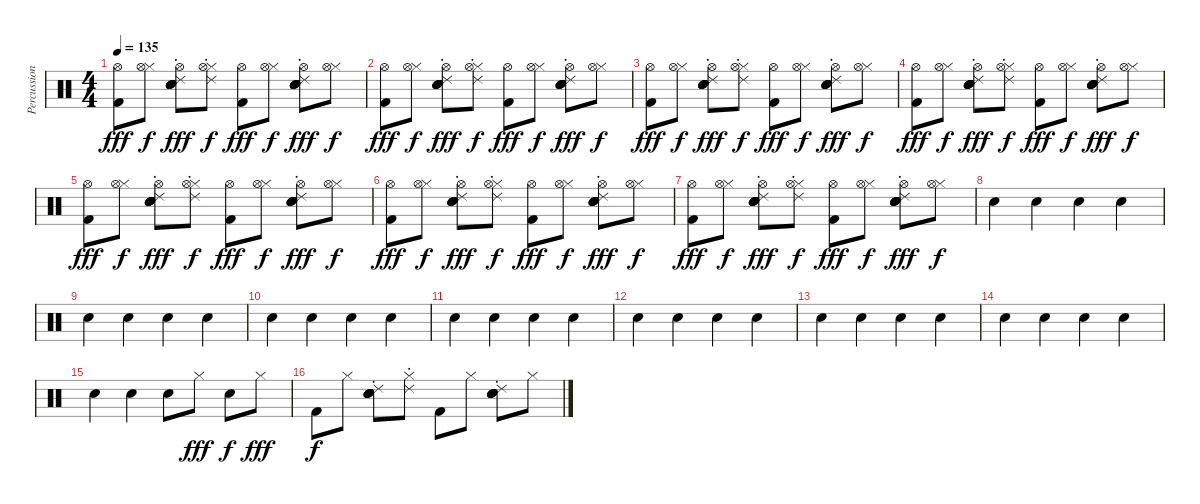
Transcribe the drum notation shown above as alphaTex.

\track ("Percussion" "Percussion") {instrument percussion}
\staff {score}
\articulation defaults
\ts (4 4)
\tempo 135
\clef neutral
\ks c
("Kick (hit) 2" "Hi-Hat (open)").8{dy fff} ("Hi-Hat (closed)" "Hi-Hat (open)").8{dy f} ("Snare (hit) 2" "Ride (choke) 2" "Hand Clap (hit)" "Hand Clap (hit)" "Hand Clap (hit)" "Hi-Hat (open)").8{dy fff} ("Hi-Hat (closed)" "Ride (choke) 2" "Hi-Hat (open)").8{dy f} ("Kick (hit) 2" "Hi-Hat (open)").8{dy fff} ("Hi-Hat (closed)" "Hi-Hat (open)").8{dy f} ("Snare (hit) 2" "Ride (choke) 2" "Hand Clap (hit)" "Hand Clap (hit)" "Hand Clap (hit)" "Hi-Hat (open)").8{dy fff} ("Hi-Hat (closed)" "Hi-Hat (open)").8{dy f} |
("Kick (hit) 2" "Hi-Hat (open)").8{dy fff} ("Hi-Hat (closed)" "Hi-Hat (open)").8{dy f} ("Snare (hit) 2" "Ride (choke) 2" "Hand Clap (hit)" "Hand Clap (hit)" "Hand Clap (hit)" "Hi-Hat (open)").8{dy fff} ("Hi-Hat (closed)" "Ride (choke) 2" "Hi-Hat (open)").8{dy f} ("Kick (hit) 2" "Hi-Hat (open)").8{dy fff} ("Hi-Hat (closed)" "Hi-Hat (open)").8{dy f} ("Snare (hit) 2" "Ride (choke) 2" "Hand Clap (hit)" "Hand Clap (hit)" "Hand Clap (hit)" "Hi-Hat (open)").8{dy fff} ("Hi-Hat (closed)" "Hi-Hat (open)").8{dy f} |
("Kick (hit) 2" "Hi-Hat (open)").8{dy fff} ("Hi-Hat (closed)" "Hi-Hat (open)").8{dy f} ("Snare (hit) 2" "Ride (choke) 2" "Hand Clap (hit)" "Hand Clap (hit)" "Hand Clap (hit)" "Hi-Hat (open)").8{dy fff} ("Hi-Hat (closed)" "Ride (choke) 2" "Hi-Hat (open)").8{dy f} ("Kick (hit) 2" "Hi-Hat (open)").8{dy fff} ("Hi-Hat (closed)" "Hi-Hat (open)").8{dy f} ("Snare (hit) 2" "Ride (choke) 2" "Hand Clap (hit)" "Hand Clap (hit)" "Hand Clap (hit)" "Hi-Hat (open)").8{dy fff} ("Hi-Hat (closed)" "Hi-Hat (open)").8{dy f} |
("Kick (hit) 2" "Hi-Hat (open)").8{dy fff} ("Hi-Hat (closed)" "Hi-Hat (open)").8{dy f} ("Snare (hit) 2" "Ride (choke) 2" "Hand Clap (hit)" "Hand Clap (hit)" "Hand Clap (hit)" "Hi-Hat (open)").8{dy fff} ("Hi-Hat (closed)" "Ride (choke) 2" "Hi-Hat (open)").8{dy f} ("Kick (hit) 2" "Hi-Hat (open)").8{dy fff} ("Hi-Hat (closed)" "Hi-Hat (open)").8{dy f} ("Snare (hit) 2" "Ride (choke) 2" "Hand Clap (hit)" "Hand Clap (hit)" "Hand Clap (hit)" "Hi-Hat (open)").8{dy fff} ("Hi-Hat (closed)" "Hi-Hat (open)").8{dy f} |
("Kick (hit) 2" "Hi-Hat (open)").8{dy fff} ("Hi-Hat (closed)" "Hi-Hat (open)").8{dy f} ("Snare (hit) 2" "Ride (choke) 2" "Hand Clap (hit)" "Hand Clap (hit)" "Hand Clap (hit)" "Hi-Hat (open)").8{dy fff} ("Hi-Hat (closed)" "Ride (choke) 2" "Hi-Hat (open)").8{dy f} ("Kick (hit) 2" "Hi-Hat (open)").8{dy fff} ("Hi-Hat (closed)" "Hi-Hat (open)").8{dy f} ("Snare (hit) 2" "Ride (choke) 2" "Hand Clap (hit)" "Hand Clap (hit)" "Hand Clap (hit)" "Hi-Hat (open)").8{dy fff} ("Hi-Hat (closed)" "Hi-Hat (open)").8{dy f} |
("Kick (hit) 2" "Hi-Hat (open)").8{dy fff} ("Hi-Hat (closed)" "Hi-Hat (open)").8{dy f} ("Snare (hit) 2" "Ride (choke) 2" "Hand Clap (hit)" "Hand Clap (hit)" "Hand Clap (hit)" "Hi-Hat (open)").8{dy fff} ("Hi-Hat (closed)" "Ride (choke) 2" "Hi-Hat (open)").8{dy f} ("Kick (hit) 2" "Hi-Hat (open)").8{dy fff} ("Hi-Hat (closed)" "Hi-Hat (open)").8{dy f} ("Snare (hit) 2" "Ride (choke) 2" "Hand Clap (hit)" "Hand Clap (hit)" "Hand Clap (hit)" "Hi-Hat (open)").8{dy fff} ("Hi-Hat (closed)" "Hi-Hat (open)").8{dy f} |
("Kick (hit) 2" "Hi-Hat (open)").8{dy fff} ("Hi-Hat (closed)" "Hi-Hat (open)").8{dy f} ("Snare (hit) 2" "Ride (choke) 2" "Hand Clap (hit)" "Hand Clap (hit)" "Hand Clap (hit)" "Hi-Hat (open)").8{dy fff} ("Hi-Hat (closed)" "Ride (choke) 2" "Hi-Hat (open)").8{dy f} ("Kick (hit) 2" "Hi-Hat (open)").8{dy fff} ("Hi-Hat (closed)" "Hi-Hat (open)").8{dy f} ("Snare (hit) 2" "Ride (choke) 2" "Hand Clap (hit)" "Hand Clap (hit)" "Hand Clap (hit)" "Hi-Hat (open)").8{dy fff} ("Hi-Hat (closed)" "Hi-Hat (open)").8{dy f} |
"Snare (hit) 2".4 "Snare (hit) 2".4 "Snare (hit) 2".4 "Snare (hit) 2".4 |
"Snare (hit) 2".4 "Snare (hit) 2".4 "Snare (hit) 2".4 "Snare (hit) 2".4 |
"Snare (hit) 2".4 "Snare (hit) 2".4 "Snare (hit) 2".4 "Snare (hit) 2".4 |
"Snare (hit) 2".4 "Snare (hit) 2".4 "Snare (hit) 2".4 "Snare (hit) 2".4 |
"Snare (hit) 2".4 "Snare (hit) 2".4 "Snare (hit) 2".4 "Snare (hit) 2".4 |
"Snare (hit) 2".4 "Snare (hit) 2".4 "Snare (hit) 2".4 "Snare (hit) 2".4 |
"Snare (hit) 2".4 "Snare (hit) 2".4 "Snare (hit) 2".4 "Snare (hit) 2".4 |
"Snare (hit) 2".4 "Snare (hit) 2".4 "Snare (hit) 2".8 "Hi-Hat (closed)".8{dy fff} "Snare (hit) 2".8{dy f} "Hi-Hat (closed)".8{dy fff} |
"Kick (hit) 2".8{dy f} "Hi-Hat (closed)".8 ("Snare (hit) 2" "Ride (choke) 2" "Hand Clap (hit)" "Hand Clap (hit)" "Hand Clap (hit)").8 ("Hi-Hat (closed)" "Ride (choke) 2").8 "Kick (hit) 2".8 "Hi-Hat (closed)".8 ("Snare (hit) 2" "Ride (choke) 2" "Hand Clap (hit)" "Hand Clap (hit)" "Hand Clap (hit)").8 "Hi-Hat (closed)".8
